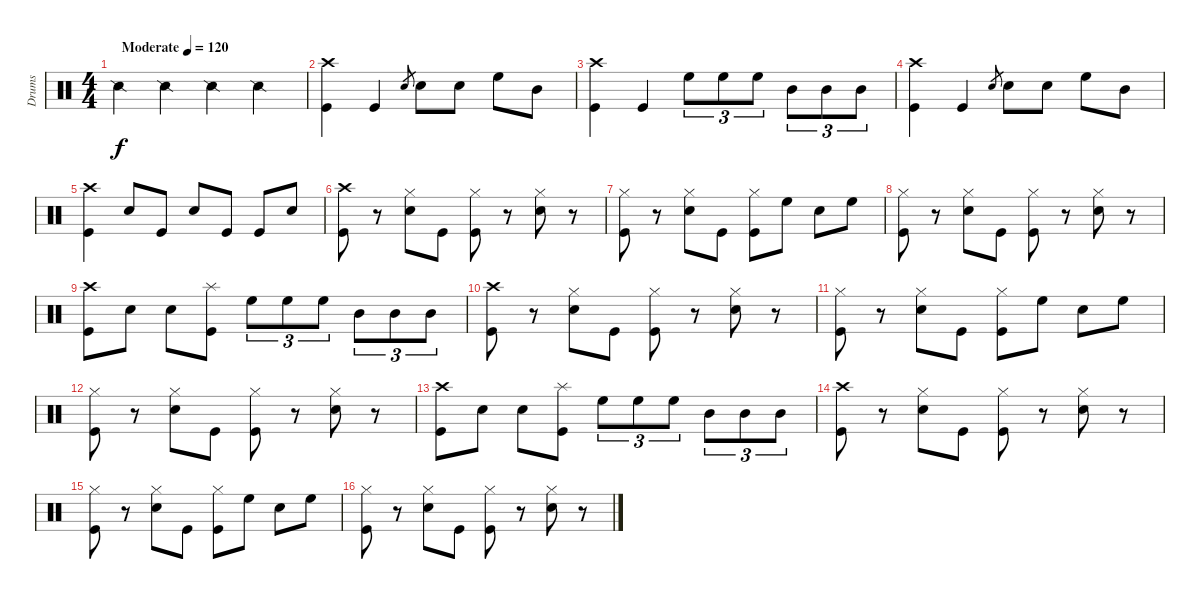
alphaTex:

\track ("Drums" "Drums") {instrument percussion}
\staff {score}
\articulation defaults
\ts (4 4)
\tempo (120 "Moderate")
\clef neutral
\ks c "Snare (side stick) 2".4{dy f} "Snare (side stick) 2".4 "Snare (side stick) 2".4 "Snare (side stick) 2".4
|
("Crash high (hit)" "Kick (hit)").4 "Kick (hit)".4 "Snare (hit) 2".8{gr} "Snare (hit) 2".8 "Snare (hit) 2".8 "High Floor Tom (hit)".8 "Mid Tom (hit)".8 |
("Crash high (hit)" "Kick (hit)").4 "Kick (hit)".4 "High Floor Tom (hit)".8{tu (3 2)} "High Floor Tom (hit)".8{tu (3 2)} "High Floor Tom (hit)".8{tu (3 2)} "Mid Tom (hit)".8{tu (3 2)} "Mid Tom (hit)".8{tu (3 2)} "Mid Tom (hit)".8{tu (3 2)} |
("Crash high (hit)" "Kick (hit)").4 "Kick (hit)".4 "Snare (hit) 2".8{gr} "Snare (hit) 2".8 "Snare (hit) 2".8 "High Floor Tom (hit)".8 "Mid Tom (hit)".8 |
("Crash high (hit)" "Kick (hit)").4 "Snare (hit) 2".8 "Kick (hit)".8 "Snare (hit) 2".8 "Kick (hit)".8 "Kick (hit)".8 "Snare (hit) 2".8 |
("Crash high (hit)" "Kick (hit)").8 r.8 ("Hi-Hat (closed)" "Snare (hit) 2").8 "Kick (hit)".8 ("Hi-Hat (closed)" "Kick (hit)").8 r.8 ("Hi-Hat (closed)" "Snare (hit) 2").8 r.8 |
("Hi-Hat (closed)" "Kick (hit)").8 r.8 ("Hi-Hat (closed)" "Snare (hit) 2").8 "Kick (hit)".8 ("Hi-Hat (closed)" "Kick (hit)").8 "High Floor Tom (hit)".8 "Snare (hit) 2".8 "High Floor Tom (hit)".8 |
("Hi-Hat (closed)" "Kick (hit)").8 r.8 ("Hi-Hat (closed)" "Snare (hit) 2").8 "Kick (hit)".8 ("Hi-Hat (closed)" "Kick (hit)").8 r.8 ("Hi-Hat (closed)" "Snare (hit) 2").8 r.8 |
("Crash high (hit)" "Kick (hit)").8 "Snare (hit) 2".8 "Snare (hit) 2".8 ("Splash (hit)" "Kick (hit)").8 "High Floor Tom (hit)".8{tu (3 2)} "High Floor Tom (hit)".8{tu (3 2)} "High Floor Tom (hit)".8{tu (3 2)} "Mid Tom (hit)".8{tu (3 2)} "Mid Tom (hit)".8{tu (3 2)} "Mid Tom (hit)".8{tu (3 2)} |
("Crash high (hit)" "Kick (hit)").8 r.8 ("Hi-Hat (closed)" "Snare (hit) 2").8 "Kick (hit)".8 ("Hi-Hat (closed)" "Kick (hit)").8 r.8 ("Hi-Hat (closed)" "Snare (hit) 2").8 r.8 |
("Hi-Hat (closed)" "Kick (hit)").8 r.8 ("Hi-Hat (closed)" "Snare (hit) 2").8 "Kick (hit)".8 ("Hi-Hat (closed)" "Kick (hit)").8 "High Floor Tom (hit)".8 "Snare (hit) 2".8 "High Floor Tom (hit)".8 |
("Hi-Hat (closed)" "Kick (hit)").8 r.8 ("Hi-Hat (closed)" "Snare (hit) 2").8 "Kick (hit)".8 ("Hi-Hat (closed)" "Kick (hit)").8 r.8 ("Hi-Hat (closed)" "Snare (hit) 2").8 r.8 |
("Crash high (hit)" "Kick (hit)").8 "Snare (hit) 2".8 "Snare (hit) 2".8 ("Splash (hit)" "Kick (hit)").8 "High Floor Tom (hit)".8{tu (3 2)} "High Floor Tom (hit)".8{tu (3 2)} "High Floor Tom (hit)".8{tu (3 2)} "Mid Tom (hit)".8{tu (3 2)} "Mid Tom (hit)".8{tu (3 2)} "Mid Tom (hit)".8{tu (3 2)} |
("Crash high (hit)" "Kick (hit)").8 r.8 ("Hi-Hat (closed)" "Snare (hit) 2").8 "Kick (hit)".8 ("Hi-Hat (closed)" "Kick (hit)").8 r.8 ("Hi-Hat (closed)" "Snare (hit) 2").8 r.8 |
("Hi-Hat (closed)" "Kick (hit)").8 r.8 ("Hi-Hat (closed)" "Snare (hit) 2").8 "Kick (hit)".8 ("Hi-Hat (closed)" "Kick (hit)").8 "High Floor Tom (hit)".8 "Snare (hit) 2".8 "High Floor Tom (hit)".8 |
("Hi-Hat (closed)" "Kick (hit)").8 r.8 ("Hi-Hat (closed)" "Snare (hit) 2").8 "Kick (hit)".8 ("Hi-Hat (closed)" "Kick (hit)").8 r.8 ("Hi-Hat (closed)" "Snare (hit) 2").8 r.8
